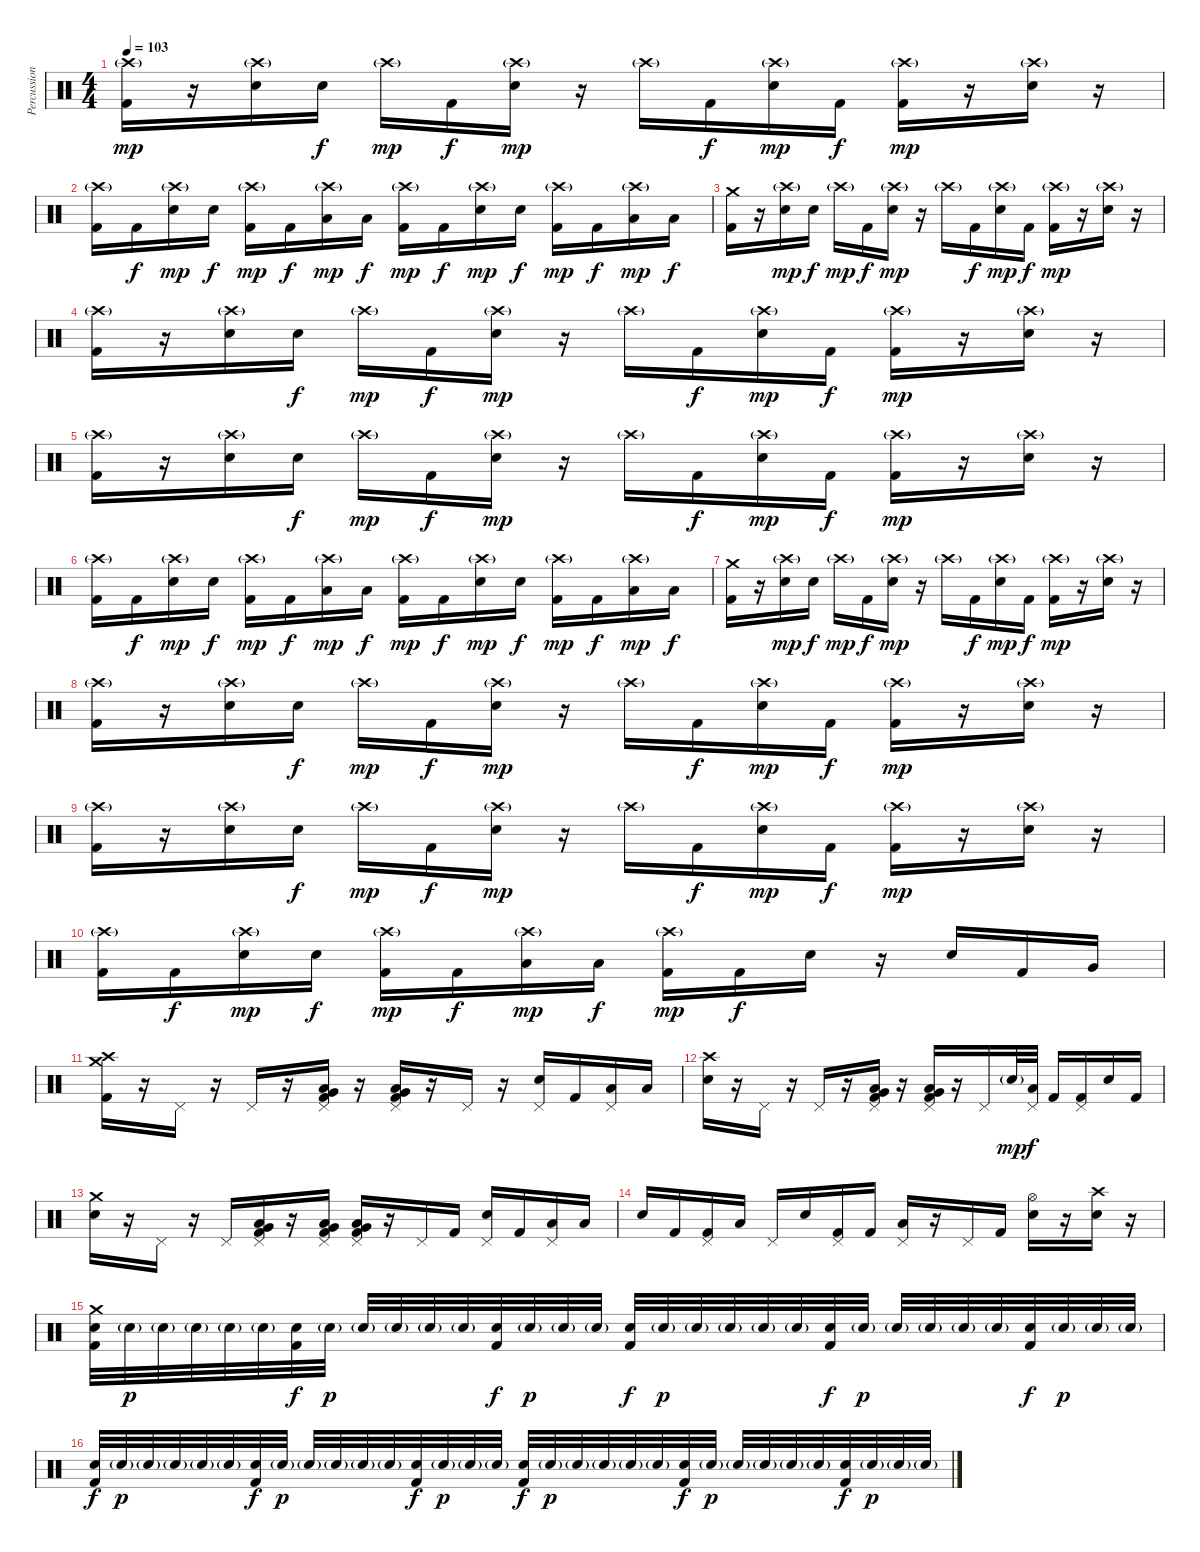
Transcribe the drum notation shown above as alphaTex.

\track ("Percussion" "Percussion") {instrument percussion}
\staff {score}
\articulation defaults
\ts (4 4)
\tempo 103
\clef neutral
\ks c
("Crash high (hit)"{g} "Kick (hit) 2").16{dy mp} r.16 ("Crash high (hit)"{g} "Electric Snare (hit)").16 "Electric Snare (hit)".16{dy f} "Crash high (hit)"{g}.16{dy mp} "Kick (hit) 2".16{dy f} ("Crash high (hit)"{g} "Electric Snare (hit)").16{dy mp} r.16 "Crash high (hit)"{g}.16 "Kick (hit) 2".16{dy f} ("Crash high (hit)"{g} "Electric Snare (hit)").16{dy mp} "Kick (hit) 2".16{dy f} ("Crash high (hit)"{g} "Kick (hit) 2").16{dy mp} r.16 ("Crash high (hit)"{g} "Electric Snare (hit)").16 r.16 |
("Crash high (hit)"{g} "Kick (hit) 2").16 "Kick (hit) 2".16{dy f} ("Crash high (hit)"{g} "Electric Snare (hit)").16{dy mp} "Electric Snare (hit)".16{dy f} ("Crash high (hit)"{g} "Kick (hit) 2").16{dy mp} "Kick (hit) 2".16{dy f} ("Crash high (hit)"{g} "Low Tom (hit)").16{dy mp} "Low Tom (hit)".16{dy f} ("Crash high (hit)"{g} "Kick (hit) 2").16{dy mp} "Kick (hit) 2".16{dy f} ("Crash high (hit)"{g} "Electric Snare (hit)").16{dy mp} "Electric Snare (hit)".16{dy f} ("Crash high (hit)"{g} "Kick (hit) 2").16{dy mp} "Kick (hit) 2".16{dy f} ("Crash high (hit)"{g} "Low Tom (hit)").16{dy mp} "Low Tom (hit)".16{dy f} |
("Crash medium (hit)" "Kick (hit) 2").16 r.16 ("Crash high (hit)"{g} "Electric Snare (hit)").16{dy mp} "Electric Snare (hit)".16{dy f} "Crash high (hit)"{g}.16{dy mp} "Kick (hit) 2".16{dy f} ("Crash high (hit)"{g} "Electric Snare (hit)").16{dy mp} r.16 "Crash high (hit)"{g}.16 "Kick (hit) 2".16{dy f} ("Crash high (hit)"{g} "Electric Snare (hit)").16{dy mp} "Kick (hit) 2".16{dy f} ("Crash high (hit)"{g} "Kick (hit) 2").16{dy mp} r.16 ("Crash high (hit)"{g} "Electric Snare (hit)").16 r.16 |
("Crash high (hit)"{g} "Kick (hit) 2").16 r.16 ("Crash high (hit)"{g} "Electric Snare (hit)").16 "Electric Snare (hit)".16{dy f} "Crash high (hit)"{g}.16{dy mp} "Kick (hit) 2".16{dy f} ("Crash high (hit)"{g} "Electric Snare (hit)").16{dy mp} r.16 "Crash high (hit)"{g}.16 "Kick (hit) 2".16{dy f} ("Crash high (hit)"{g} "Electric Snare (hit)").16{dy mp} "Kick (hit) 2".16{dy f} ("Crash high (hit)"{g} "Kick (hit) 2").16{dy mp} r.16 ("Crash high (hit)"{g} "Electric Snare (hit)").16 r.16 |
("Crash high (hit)"{g} "Kick (hit) 2").16 r.16 ("Crash high (hit)"{g} "Electric Snare (hit)").16 "Electric Snare (hit)".16{dy f} "Crash high (hit)"{g}.16{dy mp} "Kick (hit) 2".16{dy f} ("Crash high (hit)"{g} "Electric Snare (hit)").16{dy mp} r.16 "Crash high (hit)"{g}.16 "Kick (hit) 2".16{dy f} ("Crash high (hit)"{g} "Electric Snare (hit)").16{dy mp} "Kick (hit) 2".16{dy f} ("Crash high (hit)"{g} "Kick (hit) 2").16{dy mp} r.16 ("Crash high (hit)"{g} "Electric Snare (hit)").16 r.16 |
("Crash high (hit)"{g} "Kick (hit) 2").16 "Kick (hit) 2".16{dy f} ("Crash high (hit)"{g} "Electric Snare (hit)").16{dy mp} "Electric Snare (hit)".16{dy f} ("Crash high (hit)"{g} "Kick (hit) 2").16{dy mp} "Kick (hit) 2".16{dy f} ("Crash high (hit)"{g} "Low Tom (hit)").16{dy mp} "Low Tom (hit)".16{dy f} ("Crash high (hit)"{g} "Kick (hit) 2").16{dy mp} "Kick (hit) 2".16{dy f} ("Crash high (hit)"{g} "Electric Snare (hit)").16{dy mp} "Electric Snare (hit)".16{dy f} ("Crash high (hit)"{g} "Kick (hit) 2").16{dy mp} "Kick (hit) 2".16{dy f} ("Crash high (hit)"{g} "Low Tom (hit)").16{dy mp} "Low Tom (hit)".16{dy f} |
("Crash medium (hit)" "Kick (hit) 2").16 r.16 ("Crash high (hit)"{g} "Electric Snare (hit)").16{dy mp} "Electric Snare (hit)".16{dy f} "Crash high (hit)"{g}.16{dy mp} "Kick (hit) 2".16{dy f} ("Crash high (hit)"{g} "Electric Snare (hit)").16{dy mp} r.16 "Crash high (hit)"{g}.16 "Kick (hit) 2".16{dy f} ("Crash high (hit)"{g} "Electric Snare (hit)").16{dy mp} "Kick (hit) 2".16{dy f} ("Crash high (hit)"{g} "Kick (hit) 2").16{dy mp} r.16 ("Crash high (hit)"{g} "Electric Snare (hit)").16 r.16 |
("Crash high (hit)"{g} "Kick (hit) 2").16 r.16 ("Crash high (hit)"{g} "Electric Snare (hit)").16 "Electric Snare (hit)".16{dy f} "Crash high (hit)"{g}.16{dy mp} "Kick (hit) 2".16{dy f} ("Crash high (hit)"{g} "Electric Snare (hit)").16{dy mp} r.16 "Crash high (hit)"{g}.16 "Kick (hit) 2".16{dy f} ("Crash high (hit)"{g} "Electric Snare (hit)").16{dy mp} "Kick (hit) 2".16{dy f} ("Crash high (hit)"{g} "Kick (hit) 2").16{dy mp} r.16 ("Crash high (hit)"{g} "Electric Snare (hit)").16 r.16 |
("Crash high (hit)"{g} "Kick (hit) 2").16 r.16 ("Crash high (hit)"{g} "Electric Snare (hit)").16 "Electric Snare (hit)".16{dy f} "Crash high (hit)"{g}.16{dy mp} "Kick (hit) 2".16{dy f} ("Crash high (hit)"{g} "Electric Snare (hit)").16{dy mp} r.16 "Crash high (hit)"{g}.16 "Kick (hit) 2".16{dy f} ("Crash high (hit)"{g} "Electric Snare (hit)").16{dy mp} "Kick (hit) 2".16{dy f} ("Crash high (hit)"{g} "Kick (hit) 2").16{dy mp} r.16 ("Crash high (hit)"{g} "Electric Snare (hit)").16 r.16 |
("Crash high (hit)"{g} "Kick (hit) 2").16 "Kick (hit) 2".16{dy f} ("Crash high (hit)"{g} "Electric Snare (hit)").16{dy mp} "Electric Snare (hit)".16{dy f} ("Crash high (hit)"{g} "Kick (hit) 2").16{dy mp} "Kick (hit) 2".16{dy f} ("Crash high (hit)"{g} "Low Tom (hit)").16{dy mp} "Low Tom (hit)".16{dy f} ("Crash high (hit)"{g} "Kick (hit) 2").16{dy mp} "Kick (hit) 2".16{dy f} "Electric Snare (hit)".16 r.16 "Electric Snare (hit)".16 "Kick (hit) 2".16 "Very Low Tom (hit)".16 |
("Crash medium (hit)" "Crash high (hit)" "Kick (hit) 2").16 r.16 "Pedal Hi-Hat (hit)".16 r.16 "Pedal Hi-Hat (hit)".16 r.16 ("Very Low Tom (hit)" "Pedal Hi-Hat (hit)" "Low Floor Tom (hit)" "Kick (hit) 2").16 r.16 ("Very Low Tom (hit)" "Pedal Hi-Hat (hit)" "Low Floor Tom (hit)" "Kick (hit) 2").16 r.16 "Pedal Hi-Hat (hit)".16 r.16 ("Electric Snare (hit)" "Pedal Hi-Hat (hit)").16 "Kick (hit) 2".16 ("Low Floor Tom (hit)" "Pedal Hi-Hat (hit)").16 "Low Floor Tom (hit)".16 |
("Crash high (hit)" "Electric Snare (hit)").16 r.16 "Pedal Hi-Hat (hit)".16 r.16 "Pedal Hi-Hat (hit)".16 r.16 ("Very Low Tom (hit)" "Pedal Hi-Hat (hit)" "Low Floor Tom (hit)" "Kick (hit) 2").16 r.16 ("Very Low Tom (hit)" "Pedal Hi-Hat (hit)" "Low Floor Tom (hit)" "Kick (hit) 2").16 r.16 "Pedal Hi-Hat (hit)".16 "Electric Snare (hit)"{g}.32{dy mp} ("Low Tom (hit)" "Pedal Hi-Hat (hit)").32{dy f} "Kick (hit) 2".16 ("Kick (hit) 2" "Pedal Hi-Hat (hit)").16 "Electric Snare (hit)".16 "Kick (hit) 2".16 |
("Crash medium (hit)" "Electric Snare (hit)").16 r.16 "Pedal Hi-Hat (hit)".16 r.16 "Pedal Hi-Hat (hit)".16 ("Very Low Tom (hit)" "Pedal Hi-Hat (hit)" "Low Floor Tom (hit)" "Kick (hit) 2").16 r.16 ("Very Low Tom (hit)" "Pedal Hi-Hat (hit)" "Low Floor Tom (hit)" "Kick (hit) 2").16 ("Very Low Tom (hit)" "Pedal Hi-Hat (hit)" "Low Floor Tom (hit)" "Kick (hit) 2").16 r.16 "Pedal Hi-Hat (hit)".16 "Kick (hit) 2".16 ("Electric Snare (hit)" "Pedal Hi-Hat (hit)").16 "Kick (hit) 2".16 ("Low Floor Tom (hit)" "Pedal Hi-Hat (hit)").16 "Low Floor Tom (hit)".16 |
"Electric Snare (hit)".16 "Kick (hit) 2".16 ("Kick (hit) 2" "Pedal Hi-Hat (hit)").16 "Low Floor Tom (hit)".16 "Pedal Hi-Hat (hit)".16 "Electric Snare (hit)".16 ("Kick (hit) 2" "Pedal Hi-Hat (hit)").16 "Kick (hit) 2".16 ("Low Floor Tom (hit)" "Pedal Hi-Hat (hit)").16 r.16 "Pedal Hi-Hat (hit)".16 "Kick (hit) 2".16 ("Electric Snare (hit)" "Hi-Hat (open)").16 r.16 ("Electric Snare (hit)" "Crash high (hit)").16 r.16 |
("Electric Snare (hit)" "Crash medium (hit)" "Kick (hit) 2").32 "Electric Snare (hit)"{g}.32{dy p} "Electric Snare (hit)"{g}.32 "Electric Snare (hit)"{g}.32 "Electric Snare (hit)"{g}.32 "Electric Snare (hit)"{g}.32 ("Electric Snare (hit)" "Kick (hit) 2").32{dy f} "Electric Snare (hit)"{g}.32{dy p} "Electric Snare (hit)"{g}.32 "Electric Snare (hit)"{g}.32 "Electric Snare (hit)"{g}.32 "Electric Snare (hit)"{g}.32 ("Electric Snare (hit)" "Kick (hit) 2").32{dy f} "Electric Snare (hit)"{g}.32{dy p} "Electric Snare (hit)"{g}.32 "Electric Snare (hit)"{g}.32 ("Electric Snare (hit)" "Kick (hit) 2").32{dy f} "Electric Snare (hit)"{g}.32{dy p} "Electric Snare (hit)"{g}.32 "Electric Snare (hit)"{g}.32 "Electric Snare (hit)"{g}.32 "Electric Snare (hit)"{g}.32 ("Electric Snare (hit)" "Kick (hit) 2").32{dy f} "Electric Snare (hit)"{g}.32{dy p} "Electric Snare (hit)"{g}.32 "Electric Snare (hit)"{g}.32 "Electric Snare (hit)"{g}.32 "Electric Snare (hit)"{g}.32 ("Electric Snare (hit)" "Kick (hit) 2").32{dy f} "Electric Snare (hit)"{g}.32{dy p} "Electric Snare (hit)"{g}.32 "Electric Snare (hit)"{g}.32 |
("Electric Snare (hit)" "Kick (hit) 2").32{dy f} "Electric Snare (hit)"{g}.32{dy p} "Electric Snare (hit)"{g}.32 "Electric Snare (hit)"{g}.32 "Electric Snare (hit)"{g}.32 "Electric Snare (hit)"{g}.32 ("Electric Snare (hit)" "Kick (hit) 2").32{dy f} "Electric Snare (hit)"{g}.32{dy p} "Electric Snare (hit)"{g}.32 "Electric Snare (hit)"{g}.32 "Electric Snare (hit)"{g}.32 "Electric Snare (hit)"{g}.32 ("Electric Snare (hit)" "Kick (hit) 2").32{dy f} "Electric Snare (hit)"{g}.32{dy p} "Electric Snare (hit)"{g}.32 "Electric Snare (hit)"{g}.32 ("Electric Snare (hit)" "Kick (hit) 2").32{dy f} "Electric Snare (hit)"{g}.32{dy p} "Electric Snare (hit)"{g}.32 "Electric Snare (hit)"{g}.32 "Electric Snare (hit)"{g}.32 "Electric Snare (hit)"{g}.32 ("Electric Snare (hit)" "Kick (hit) 2").32{dy f} "Electric Snare (hit)"{g}.32{dy p} "Electric Snare (hit)"{g}.32 "Electric Snare (hit)"{g}.32 "Electric Snare (hit)"{g}.32 "Electric Snare (hit)"{g}.32 ("Electric Snare (hit)" "Kick (hit) 2").32{dy f} "Electric Snare (hit)"{g}.32{dy p} "Electric Snare (hit)"{g}.32 "Electric Snare (hit)"{g}.32
